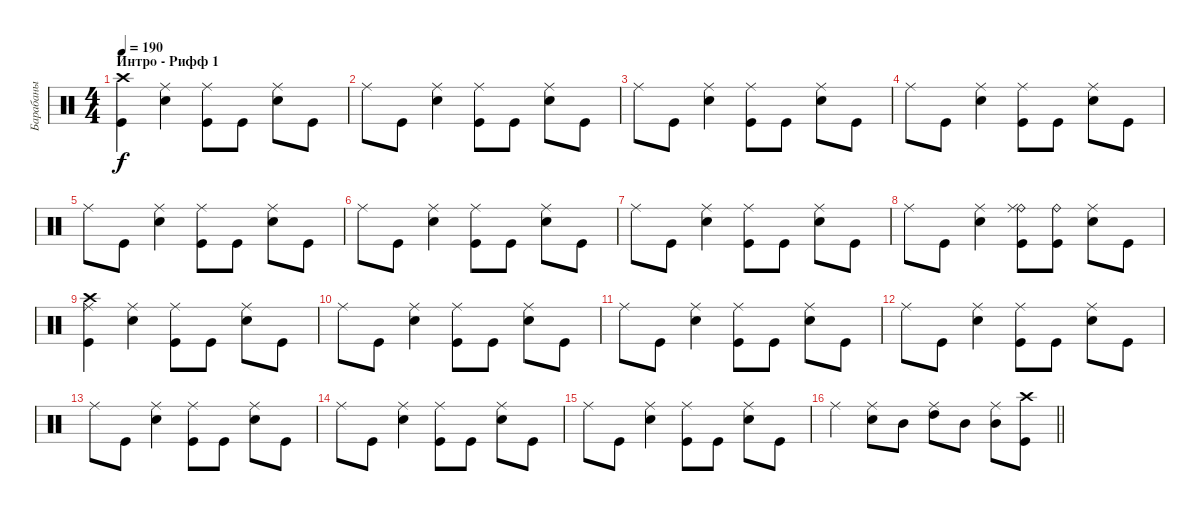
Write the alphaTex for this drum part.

\track ("Барабаны" "Барабаны") {instrument percussion}
\staff {score}
\articulation defaults
\ts (4 4)
\section ("" "Интро - Рифф 1")
\tempo 190
\clef neutral
\ks c
("Kick (hit)" "Crash high (hit)").4{dy f} ("Snare (hit) 2" "Ride (middle)").4 ("Kick (hit)" "Ride (middle)").8 "Kick (hit)".8 ("Snare (hit) 2" "Ride (middle)").8 "Kick (hit)".8 |
"Ride (middle)".8 "Kick (hit)".8 ("Snare (hit) 2" "Ride (middle)").4 ("Kick (hit)" "Ride (middle)").8 "Kick (hit)".8 ("Snare (hit) 2" "Ride (middle)").8 "Kick (hit)".8 |
"Ride (middle)".8 "Kick (hit)".8 ("Snare (hit) 2" "Ride (middle)").4 ("Kick (hit)" "Ride (middle)").8 "Kick (hit)".8 ("Snare (hit) 2" "Ride (middle)").8 "Kick (hit)".8 |
"Ride (middle)".8 "Kick (hit)".8 ("Snare (hit) 2" "Ride (middle)").4 ("Kick (hit)" "Ride (middle)").8 "Kick (hit)".8 ("Snare (hit) 2" "Ride (middle)").8 "Kick (hit)".8 |
"Ride (middle)".8 "Kick (hit)".8 ("Snare (hit) 2" "Ride (middle)").4 ("Kick (hit)" "Ride (middle)").8 "Kick (hit)".8 ("Snare (hit) 2" "Ride (middle)").8 "Kick (hit)".8 |
"Ride (middle)".8 "Kick (hit)".8 ("Snare (hit) 2" "Ride (middle)").4 ("Kick (hit)" "Ride (middle)").8 "Kick (hit)".8 ("Snare (hit) 2" "Ride (middle)").8 "Kick (hit)".8 |
"Ride (middle)".8 "Kick (hit)".8 ("Snare (hit) 2" "Ride (middle)").4 ("Kick (hit)" "Ride (middle)").8 "Kick (hit)".8 ("Snare (hit) 2" "Ride (middle)").8 "Kick (hit)".8 |
"Ride (middle)".8 "Kick (hit)".8 ("Snare (hit) 2" "Ride (middle)").4 ("Kick (hit)" "Ride (bell)" "Ride (middle)").8 ("Kick (hit)" "Ride (bell)").8 ("Snare (hit) 2" "Ride (middle)").8 "Kick (hit)".8 |
("Kick (hit)" "Crash high (hit)" "Ride (middle)").4 ("Snare (hit) 2" "Ride (middle)").4 ("Kick (hit)" "Ride (middle)").8 "Kick (hit)".8 ("Snare (hit) 2" "Ride (middle)").8 "Kick (hit)".8 |
"Ride (middle)".8 "Kick (hit)".8 ("Snare (hit) 2" "Ride (middle)").4 ("Kick (hit)" "Ride (middle)").8 "Kick (hit)".8 ("Snare (hit) 2" "Ride (middle)").8 "Kick (hit)".8 |
"Ride (middle)".8 "Kick (hit)".8 ("Snare (hit) 2" "Ride (middle)").4 ("Kick (hit)" "Ride (middle)").8 "Kick (hit)".8 ("Snare (hit) 2" "Ride (middle)").8 "Kick (hit)".8 |
"Ride (middle)".8 "Kick (hit)".8 ("Snare (hit) 2" "Ride (middle)").4 ("Kick (hit)" "Ride (middle)").8 "Kick (hit)".8 ("Snare (hit) 2" "Ride (middle)").8 "Kick (hit)".8 |
"Ride (middle)".8 "Kick (hit)".8 ("Snare (hit) 2" "Ride (middle)").4 ("Kick (hit)" "Ride (middle)").8 "Kick (hit)".8 ("Snare (hit) 2" "Ride (middle)").8 "Kick (hit)".8 |
"Ride (middle)".8 "Kick (hit)".8 ("Snare (hit) 2" "Ride (middle)").4 ("Kick (hit)" "Ride (middle)").8 "Kick (hit)".8 ("Snare (hit) 2" "Ride (middle)").8 "Kick (hit)".8 |
"Ride (middle)".8 "Kick (hit)".8 ("Snare (hit) 2" "Ride (middle)").4 ("Kick (hit)" "Ride (middle)").8 "Kick (hit)".8 ("Snare (hit) 2" "Ride (middle)").8 "Kick (hit)".8 |
\barLineRight lightlight "Ride (middle)".4
("Snare (hit) 2" "Ride (middle)").8 "Mid Tom (hit)".8 ("High Tom (hit)" "Ride (middle)").8 "Mid Tom (hit)".8 ("Mid Tom (hit)" "Ride (middle)").8 ("Kick (hit)" "Crash high (hit)").8
